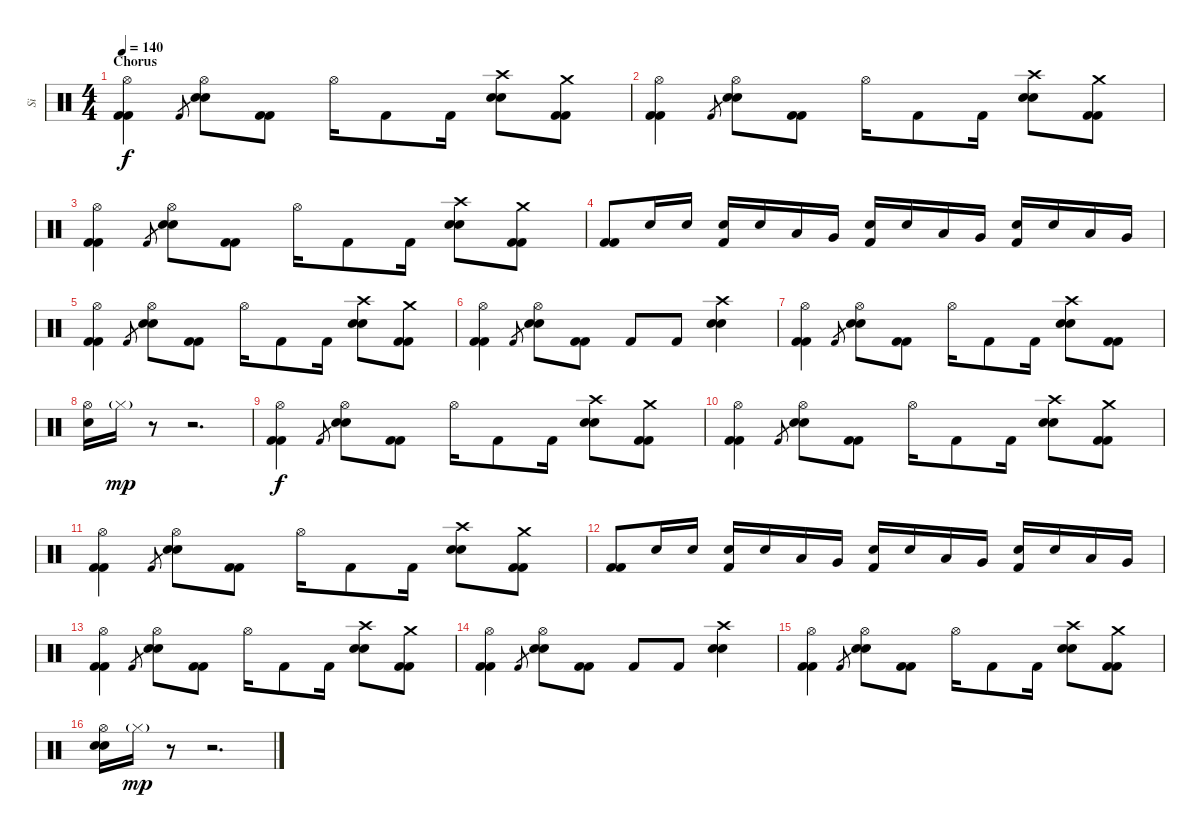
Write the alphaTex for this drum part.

\track ("Si" "Si") {instrument percussion}
\staff {score}
\articulation defaults
\ts (4 4)
\section ("" "Chorus")
\tempo 140
\clef neutral
\ks c
("Hi-Hat (open)" "Kick (hit) 2" "Kick (hit) 2").4{dy f} "Kick (hit) 2".8{gr} ("Hi-Hat (open)" "Electric Snare (hit)" "Electric Snare (hit)").8 ("Kick (hit) 2" "Kick (hit) 2").8 "Hi-Hat (open)".16 "Kick (hit) 2".8 "Kick (hit) 2".16 ("Crash high (hit)" "Electric Snare (hit)" "Electric Snare (hit)").8 ("Crash medium (hit)" "Kick (hit) 2" "Kick (hit) 2").8 |
("Hi-Hat (open)" "Kick (hit) 2" "Kick (hit) 2").4 "Kick (hit) 2".8{gr} ("Hi-Hat (open)" "Electric Snare (hit)" "Electric Snare (hit)").8 ("Kick (hit) 2" "Kick (hit) 2").8 "Hi-Hat (open)".16 "Kick (hit) 2".8 "Kick (hit) 2".16 ("Crash high (hit)" "Electric Snare (hit)" "Electric Snare (hit)").8 ("Crash medium (hit)" "Kick (hit) 2" "Kick (hit) 2").8 |
("Hi-Hat (open)" "Kick (hit) 2" "Kick (hit) 2").4 "Kick (hit) 2".8{gr} ("Hi-Hat (open)" "Electric Snare (hit)" "Electric Snare (hit)").8 ("Kick (hit) 2" "Kick (hit) 2").8 "Hi-Hat (open)".16 "Kick (hit) 2".8 "Kick (hit) 2".16 ("Crash high (hit)" "Electric Snare (hit)" "Electric Snare (hit)").8 ("Crash medium (hit)" "Kick (hit) 2" "Kick (hit) 2").8 |
("Kick (hit) 2" "Kick (hit) 2").8 "Electric Snare (hit)".16 "Electric Snare (hit)".16 ("Electric Snare (hit)" "Kick (hit) 2").16 "Electric Snare (hit)".16 "Low Tom (hit)".16 "Very Low Tom (hit)".16 ("Electric Snare (hit)" "Kick (hit) 2").16 "Electric Snare (hit)".16 "Low Tom (hit)".16 "Very Low Tom (hit)".16 ("Electric Snare (hit)" "Kick (hit) 2").16 "Electric Snare (hit)".16 "Low Tom (hit)".16 "Very Low Tom (hit)".16 |
("Hi-Hat (open)" "Kick (hit) 2" "Kick (hit) 2").4 "Kick (hit) 2".8{gr} ("Hi-Hat (open)" "Electric Snare (hit)" "Electric Snare (hit)").8 ("Kick (hit) 2" "Kick (hit) 2").8 "Hi-Hat (open)".16 "Kick (hit) 2".8 "Kick (hit) 2".16 ("Crash high (hit)" "Electric Snare (hit)" "Electric Snare (hit)").8 ("Crash medium (hit)" "Kick (hit) 2" "Kick (hit) 2").8 |
("Hi-Hat (open)" "Kick (hit) 2" "Kick (hit) 2").4 "Kick (hit) 2".8{gr} ("Hi-Hat (open)" "Electric Snare (hit)" "Electric Snare (hit)").8 ("Kick (hit) 2" "Kick (hit) 2").8 "Kick (hit) 2".8 "Kick (hit) 2".8 ("Crash high (hit)" "Electric Snare (hit)" "Electric Snare (hit)").4 |
("Hi-Hat (open)" "Kick (hit) 2" "Kick (hit) 2").4 "Kick (hit) 2".8{gr} ("Hi-Hat (open)" "Electric Snare (hit)" "Electric Snare (hit)").8 ("Kick (hit) 2" "Kick (hit) 2").8 "Hi-Hat (open)".16 "Kick (hit) 2".8 "Kick (hit) 2".16 ("Crash high (hit)" "Electric Snare (hit)" "Electric Snare (hit)").8 ("Kick (hit) 2" "Kick (hit) 2").8 |
("Hi-Hat (open)" "Electric Snare (hit)").16 "Hi-Hat (closed)"{g}.16{dy mp} r.8 r.2{d} |
("Hi-Hat (open)" "Kick (hit) 2" "Kick (hit) 2").4{dy f} "Kick (hit) 2".8{gr} ("Hi-Hat (open)" "Electric Snare (hit)" "Electric Snare (hit)").8 ("Kick (hit) 2" "Kick (hit) 2").8 "Hi-Hat (open)".16 "Kick (hit) 2".8 "Kick (hit) 2".16 ("Crash high (hit)" "Electric Snare (hit)" "Electric Snare (hit)").8 ("Crash medium (hit)" "Kick (hit) 2" "Kick (hit) 2").8 |
("Hi-Hat (open)" "Kick (hit) 2" "Kick (hit) 2").4 "Kick (hit) 2".8{gr} ("Hi-Hat (open)" "Electric Snare (hit)" "Electric Snare (hit)").8 ("Kick (hit) 2" "Kick (hit) 2").8 "Hi-Hat (open)".16 "Kick (hit) 2".8 "Kick (hit) 2".16 ("Crash high (hit)" "Electric Snare (hit)" "Electric Snare (hit)").8 ("Crash medium (hit)" "Kick (hit) 2" "Kick (hit) 2").8 |
("Hi-Hat (open)" "Kick (hit) 2" "Kick (hit) 2").4 "Kick (hit) 2".8{gr} ("Hi-Hat (open)" "Electric Snare (hit)" "Electric Snare (hit)").8 ("Kick (hit) 2" "Kick (hit) 2").8 "Hi-Hat (open)".16 "Kick (hit) 2".8 "Kick (hit) 2".16 ("Crash high (hit)" "Electric Snare (hit)" "Electric Snare (hit)").8 ("Crash medium (hit)" "Kick (hit) 2" "Kick (hit) 2").8 |
("Kick (hit) 2" "Kick (hit) 2").8 "Electric Snare (hit)".16 "Electric Snare (hit)".16 ("Electric Snare (hit)" "Kick (hit) 2").16 "Electric Snare (hit)".16 "Low Tom (hit)".16 "Very Low Tom (hit)".16 ("Electric Snare (hit)" "Kick (hit) 2").16 "Electric Snare (hit)".16 "Low Tom (hit)".16 "Very Low Tom (hit)".16 ("Electric Snare (hit)" "Kick (hit) 2").16 "Electric Snare (hit)".16 "Low Tom (hit)".16 "Very Low Tom (hit)".16 |
("Hi-Hat (open)" "Kick (hit) 2" "Kick (hit) 2").4 "Kick (hit) 2".8{gr} ("Hi-Hat (open)" "Electric Snare (hit)" "Electric Snare (hit)").8 ("Kick (hit) 2" "Kick (hit) 2").8 "Hi-Hat (open)".16 "Kick (hit) 2".8 "Kick (hit) 2".16 ("Crash high (hit)" "Electric Snare (hit)" "Electric Snare (hit)").8 ("Crash medium (hit)" "Kick (hit) 2" "Kick (hit) 2").8 |
("Hi-Hat (open)" "Kick (hit) 2" "Kick (hit) 2").4 "Kick (hit) 2".8{gr} ("Hi-Hat (open)" "Electric Snare (hit)" "Electric Snare (hit)").8 ("Kick (hit) 2" "Kick (hit) 2").8 "Kick (hit) 2".8 "Kick (hit) 2".8 ("Crash high (hit)" "Electric Snare (hit)" "Electric Snare (hit)").4 |
("Hi-Hat (open)" "Kick (hit) 2" "Kick (hit) 2").4 "Kick (hit) 2".8{gr} ("Hi-Hat (open)" "Electric Snare (hit)" "Electric Snare (hit)").8 ("Kick (hit) 2" "Kick (hit) 2").8 "Hi-Hat (open)".16 "Kick (hit) 2".8 "Kick (hit) 2".16 ("Crash high (hit)" "Electric Snare (hit)" "Electric Snare (hit)").8 ("Crash medium (hit)" "Kick (hit) 2" "Kick (hit) 2").8 |
("Hi-Hat (open)" "Electric Snare (hit)" "Electric Snare (hit)").16 "Hi-Hat (closed)"{g}.16{dy mp} r.8 r.2{d}
